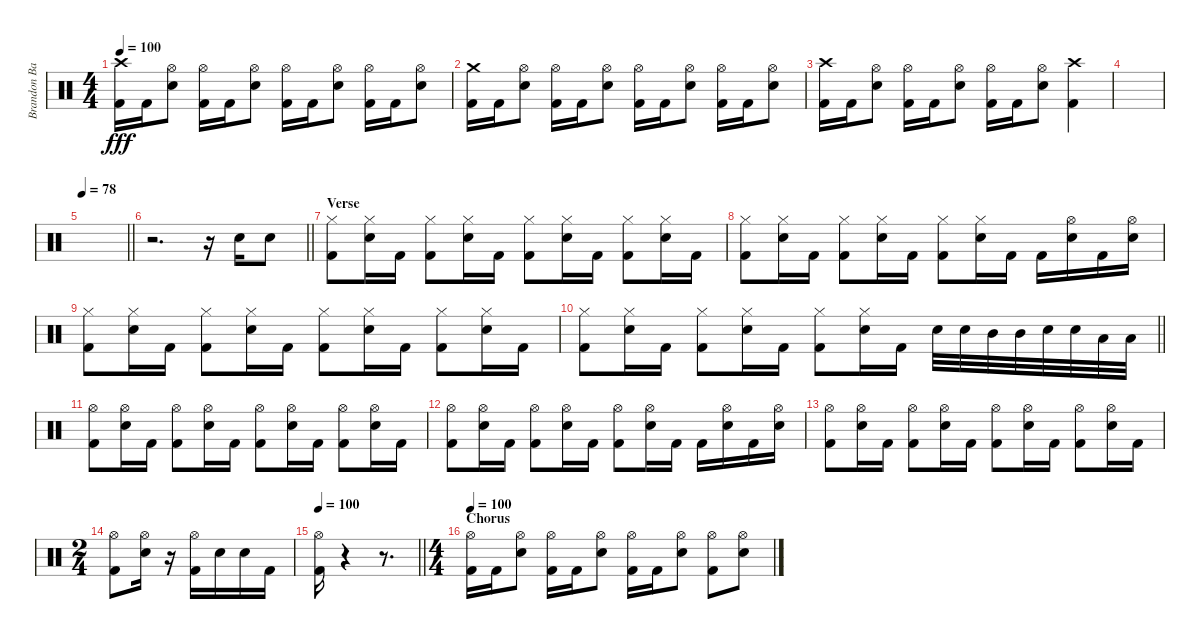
\track ("Brandon Barnes" "Brandon Ba") {instrument percussion}
\staff {score}
\articulation defaults
\ts (4 4)
\tempo 100
\clef neutral
\ks c
("Crash high (hit)" "Kick (hit) 2").16{dy fff} "Kick (hit) 2".16 ("Hi-Hat (open)" "Snare (hit) 2").8 ("Hi-Hat (open)" "Kick (hit) 2").16 "Kick (hit) 2".16 ("Hi-Hat (open)" "Snare (hit) 2").8 ("Hi-Hat (open)" "Kick (hit) 2").16 "Kick (hit) 2".16 ("Hi-Hat (open)" "Snare (hit) 2").8 ("Hi-Hat (open)" "Kick (hit) 2").16 "Kick (hit) 2".16 ("Hi-Hat (open)" "Snare (hit) 2").8 |
("Crash medium (hit)" "Kick (hit) 2").16 "Kick (hit) 2".16 ("Hi-Hat (open)" "Snare (hit) 2").8 ("Hi-Hat (open)" "Kick (hit) 2").16 "Kick (hit) 2".16 ("Hi-Hat (open)" "Snare (hit) 2").8 ("Hi-Hat (open)" "Kick (hit) 2").16 "Kick (hit) 2".16 ("Hi-Hat (open)" "Snare (hit) 2").8 ("Hi-Hat (open)" "Kick (hit) 2").16 "Kick (hit) 2".16 ("Hi-Hat (open)" "Snare (hit) 2").8 |
("Crash high (hit)" "Kick (hit) 2").16 "Kick (hit) 2".16 ("Hi-Hat (open)" "Snare (hit) 2").8 ("Hi-Hat (open)" "Kick (hit) 2").16 "Kick (hit) 2".16 ("Hi-Hat (open)" "Snare (hit) 2").8 ("Hi-Hat (open)" "Kick (hit) 2").16 "Kick (hit) 2".16 ("Hi-Hat (open)" "Snare (hit) 2").8 ("Crash high (hit)" "Kick (hit) 2").4 |
|
\tempo 78
\barLineRight lightlight
|
\barLineRight lightlight
r.2{d} r.16 "Snare (hit) 2".16 "Snare (hit) 2".8 |
\section ("" "Verse")
("Hi-Hat (closed)" "Kick (hit) 2").8 ("Hi-Hat (closed)" "Snare (hit) 2").16 "Kick (hit) 2".16 ("Hi-Hat (closed)" "Kick (hit) 2").8 ("Hi-Hat (closed)" "Snare (hit) 2").16 "Kick (hit) 2".16 ("Hi-Hat (closed)" "Kick (hit) 2").8 ("Hi-Hat (closed)" "Snare (hit) 2").16 "Kick (hit) 2".16 ("Hi-Hat (closed)" "Kick (hit) 2").8 ("Hi-Hat (closed)" "Snare (hit) 2").16 "Kick (hit) 2".16 |
("Hi-Hat (closed)" "Kick (hit) 2").8 ("Hi-Hat (closed)" "Snare (hit) 2").16 "Kick (hit) 2".16 ("Hi-Hat (closed)" "Kick (hit) 2").8 ("Hi-Hat (closed)" "Snare (hit) 2").16 "Kick (hit) 2".16 ("Hi-Hat (closed)" "Kick (hit) 2").8 ("Hi-Hat (closed)" "Snare (hit) 2").16 "Kick (hit) 2".16 "Kick (hit) 2".16 ("Hi-Hat (open)" "Snare (hit) 2").16 "Kick (hit) 2".16 ("Hi-Hat (open)" "Snare (hit) 2").16 |
("Hi-Hat (closed)" "Kick (hit) 2").8 ("Hi-Hat (closed)" "Snare (hit) 2").16 "Kick (hit) 2".16 ("Hi-Hat (closed)" "Kick (hit) 2").8 ("Hi-Hat (closed)" "Snare (hit) 2").16 "Kick (hit) 2".16 ("Hi-Hat (closed)" "Kick (hit) 2").8 ("Hi-Hat (closed)" "Snare (hit) 2").16 "Kick (hit) 2".16 ("Hi-Hat (closed)" "Kick (hit) 2").8 ("Hi-Hat (closed)" "Snare (hit) 2").16 "Kick (hit) 2".16 |
\barLineRight lightlight
("Hi-Hat (closed)" "Kick (hit) 2").8 ("Hi-Hat (closed)" "Snare (hit) 2").16 "Kick (hit) 2".16 ("Hi-Hat (closed)" "Kick (hit) 2").8 ("Hi-Hat (closed)" "Snare (hit) 2").16 "Kick (hit) 2".16 ("Hi-Hat (closed)" "Kick (hit) 2").8 ("Hi-Hat (closed)" "Snare (hit) 2").16 "Kick (hit) 2".16 "Snare (hit) 2".32 "Snare (hit) 2".32 "Mid Tom (hit)".32 "Mid Tom (hit)".32 "Snare (hit) 2".32 "Snare (hit) 2".32 "Low Tom (hit)".32 "Low Tom (hit)".32 |
("Hi-Hat (open)" "Kick (hit) 2").8 ("Hi-Hat (open)" "Snare (hit) 2").16 "Kick (hit) 2".16 ("Hi-Hat (open)" "Kick (hit) 2").8 ("Hi-Hat (open)" "Snare (hit) 2").16 "Kick (hit) 2".16 ("Hi-Hat (open)" "Kick (hit) 2").8 ("Hi-Hat (open)" "Snare (hit) 2").16 "Kick (hit) 2".16 ("Hi-Hat (open)" "Kick (hit) 2").8 ("Hi-Hat (open)" "Snare (hit) 2").16 "Kick (hit) 2".16 |
("Hi-Hat (open)" "Kick (hit) 2").8 ("Hi-Hat (open)" "Snare (hit) 2").16 "Kick (hit) 2".16 ("Hi-Hat (open)" "Kick (hit) 2").8 ("Hi-Hat (open)" "Snare (hit) 2").16 "Kick (hit) 2".16 ("Hi-Hat (open)" "Kick (hit) 2").8 ("Hi-Hat (open)" "Snare (hit) 2").16 "Kick (hit) 2".16 "Kick (hit) 2".16 ("Hi-Hat (open)" "Snare (hit) 2").16 "Kick (hit) 2".16 ("Hi-Hat (open)" "Snare (hit) 2").16 |
("Hi-Hat (open)" "Kick (hit) 2").8 ("Hi-Hat (open)" "Snare (hit) 2").16 "Kick (hit) 2".16 ("Hi-Hat (open)" "Kick (hit) 2").8 ("Hi-Hat (open)" "Snare (hit) 2").16 "Kick (hit) 2".16 ("Hi-Hat (open)" "Kick (hit) 2").8 ("Hi-Hat (open)" "Snare (hit) 2").16 "Kick (hit) 2".16 ("Hi-Hat (open)" "Kick (hit) 2").8 ("Hi-Hat (open)" "Snare (hit) 2").16 "Kick (hit) 2".16 |
\ts (2 4)
("Hi-Hat (open)" "Kick (hit) 2").8 ("Hi-Hat (open)" "Snare (hit) 2").16 r.16 ("Hi-Hat (open)" "Kick (hit) 2").16 "Snare (hit) 2".16 "Snare (hit) 2".16 "Kick (hit) 2".16 |
\tempo 100
\barLineRight lightlight
("Hi-Hat (open)" "Kick (hit) 2").16 r.4 r.8{d} |
\ts (4 4)
\section ("" "Chorus")
\tempo 100
("Hi-Hat (open)" "Kick (hit) 2").16 "Kick (hit) 2".16 ("Hi-Hat (open)" "Snare (hit) 2").8 ("Hi-Hat (open)" "Kick (hit) 2").16 "Kick (hit) 2".16 ("Hi-Hat (open)" "Snare (hit) 2").8 ("Hi-Hat (open)" "Kick (hit) 2").16 "Kick (hit) 2".16 ("Hi-Hat (open)" "Snare (hit) 2").8 ("Hi-Hat (open)" "Kick (hit) 2").8 ("Hi-Hat (open)" "Snare (hit) 2").8
